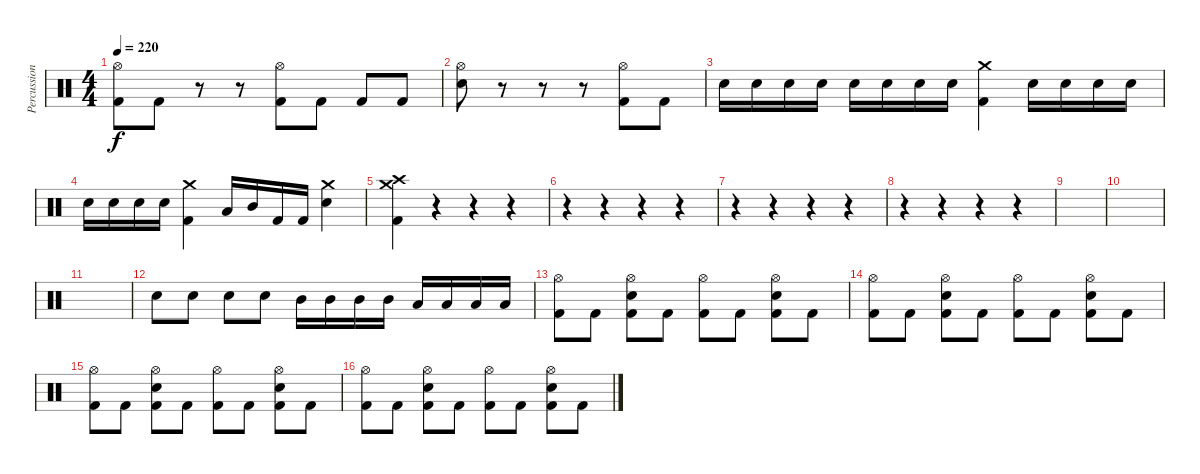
\track ("Percussion" "Percussion") {instrument percussion}
\staff {score}
\articulation defaults
\ts (4 4)
\tempo 220
\clef neutral
\ks c
("Hi-Hat (open)" "Kick (hit) 2").8{dy f} "Kick (hit) 2".8 r.8 r.8 ("Hi-Hat (open)" "Kick (hit) 2").8 "Kick (hit) 2".8 "Kick (hit) 2".8 "Kick (hit) 2".8 |
("Hi-Hat (open)" "Snare (hit) 2").8 r.8 r.8 r.8 ("Hi-Hat (open)" "Kick (hit) 2").8 "Kick (hit) 2".8 |
"Snare (hit) 2".16 "Snare (hit) 2".16 "Snare (hit) 2".16 "Snare (hit) 2".16 "Snare (hit) 2".16 "Snare (hit) 2".16 "Snare (hit) 2".16 "Snare (hit)".16 ("Crash medium (hit)" "Kick (hit) 2").4 "Snare (hit) 2".16 "Snare (hit) 2".16 "Snare (hit) 2".16 "Snare (hit) 2".16 |
"Snare (hit) 2".16 "Snare (hit) 2".16 "Snare (hit) 2".16 "Snare (hit) 2".16 ("Crash medium (hit)" "Kick (hit) 2").4 "Low Tom (hit)".16 "Mid Tom (hit)".16 "Kick (hit) 2".16 "Kick (hit) 2".16 ("Crash medium (hit)" "Snare (hit) 2").4 |
("Crash medium (hit)" "Crash high (hit)" "Kick (hit) 2").4 r.4 r.4 r.4 |
r.4 r.4 r.4 r.4 |
r.4 r.4 r.4 r.4 |
r.4 r.4 r.4 r.4 |
|
|
|
"Snare (hit) 2".8 "Snare (hit) 2".8 "Snare (hit) 2".8 "Snare (hit) 2".8 "Mid Tom (hit)".16 "Mid Tom (hit)".16 "Mid Tom (hit)".16 "Mid Tom (hit)".16 "Low Tom (hit)".16 "Low Tom (hit)".16 "Low Tom (hit)".16 "Low Tom (hit)".16 |
("Hi-Hat (open)" "Kick (hit) 2").8 "Kick (hit) 2".8 ("Snare (hit) 2" "Hi-Hat (open)" "Kick (hit) 2").8 "Kick (hit) 2".8 ("Hi-Hat (open)" "Kick (hit) 2").8 "Kick (hit) 2".8 ("Snare (hit) 2" "Hi-Hat (open)" "Kick (hit) 2").8 "Kick (hit) 2".8 |
("Hi-Hat (open)" "Kick (hit) 2").8 "Kick (hit) 2".8 ("Snare (hit) 2" "Hi-Hat (open)" "Kick (hit) 2").8 "Kick (hit) 2".8 ("Hi-Hat (open)" "Kick (hit) 2").8 "Kick (hit) 2".8 ("Snare (hit) 2" "Hi-Hat (open)" "Kick (hit) 2").8 "Kick (hit) 2".8 |
("Hi-Hat (open)" "Kick (hit) 2").8 "Kick (hit) 2".8 ("Snare (hit) 2" "Hi-Hat (open)" "Kick (hit) 2").8 "Kick (hit) 2".8 ("Hi-Hat (open)" "Kick (hit) 2").8 "Kick (hit) 2".8 ("Snare (hit) 2" "Hi-Hat (open)" "Kick (hit) 2").8 "Kick (hit) 2".8 |
("Hi-Hat (open)" "Kick (hit) 2").8 "Kick (hit) 2".8 ("Snare (hit) 2" "Hi-Hat (open)" "Kick (hit) 2").8 "Kick (hit) 2".8 ("Hi-Hat (open)" "Kick (hit) 2").8 "Kick (hit) 2".8 ("Snare (hit) 2" "Hi-Hat (open)" "Kick (hit) 2").8 "Kick (hit) 2".8
